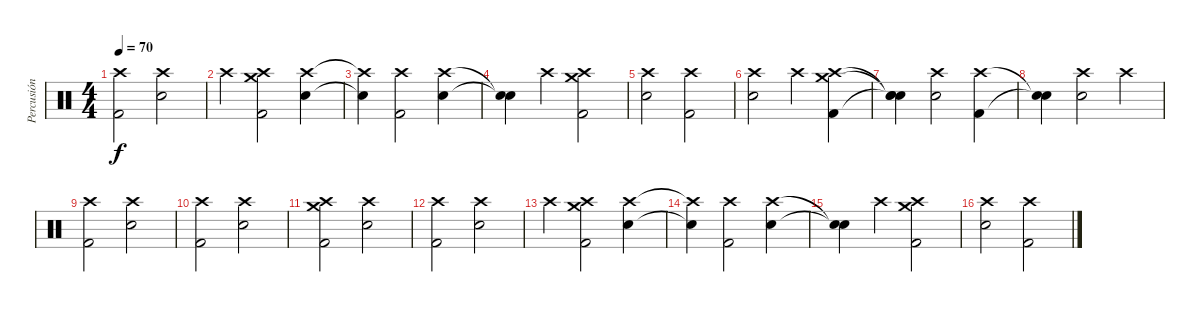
\track ("Percusión" "Percusión") {instrument percussion}
\staff {score}
\articulation defaults
\ts (4 4)
\tempo 70
\clef neutral
\ks c
("Crash high (hit)" "Kick (hit) 2").2{dy f} ("Crash high (hit)" "Snare (hit) 2").2 |
"Crash high (hit)".4 ("Crash high (hit)" "Crash medium (hit)" "Kick (hit) 2").2 ("Crash high (hit)" "Snare (hit) 2").4 |
("Crash high (hit)"{t} "Snare (hit)"{t}).4 ("Crash high (hit)" "Kick (hit) 2").2 ("Crash high (hit)" "Snare (hit) 2").4 |
("Snare (hit)"{t} "Snare (hit)"{t}).4 "Crash high (hit)".4 ("Crash medium (hit)" "Crash high (hit)" "Kick (hit) 2").2 |
("Crash high (hit)" "Snare (hit) 2").2 ("Crash high (hit)" "Kick (hit) 2").2 |
("Crash high (hit)" "Snare (hit) 2").2 "Crash high (hit)".4 ("Crash medium (hit)" "Crash high (hit)" "Kick (hit) 2").4 |
("Snare (hit)"{t} "Snare (hit)"{t} "Snare (hit)"{t}).4 ("Crash high (hit)" "Snare (hit) 2").2 ("Crash high (hit)" "Kick (hit) 2").4 |
("Snare (hit)"{t} "Snare (hit)"{t}).4 ("Crash high (hit)" "Snare (hit) 2").2 "Crash high (hit)".4 |
("Crash high (hit)" "Kick (hit) 2").2 ("Crash high (hit)" "Snare (hit) 2").2 |
("Crash high (hit)" "Kick (hit) 2").2 ("Crash high (hit)" "Snare (hit) 2").2 |
("Crash medium (hit)" "Crash high (hit)" "Kick (hit) 2").2 ("Crash high (hit)" "Snare (hit) 2").2 |
("Crash high (hit)" "Kick (hit) 2").2 ("Crash high (hit)" "Snare (hit) 2").2 |
"Crash high (hit)".4 ("Crash high (hit)" "Crash medium (hit)" "Kick (hit) 2").2 ("Crash high (hit)" "Snare (hit) 2").4 |
("Crash high (hit)"{t} "Snare (hit)"{t}).4 ("Crash high (hit)" "Kick (hit) 2").2 ("Crash high (hit)" "Snare (hit) 2").4 |
("Snare (hit)"{t} "Snare (hit)"{t}).4 "Crash high (hit)".4 ("Crash medium (hit)" "Crash high (hit)" "Kick (hit) 2").2 |
("Crash high (hit)" "Snare (hit) 2").2 ("Crash high (hit)" "Kick (hit) 2").2
